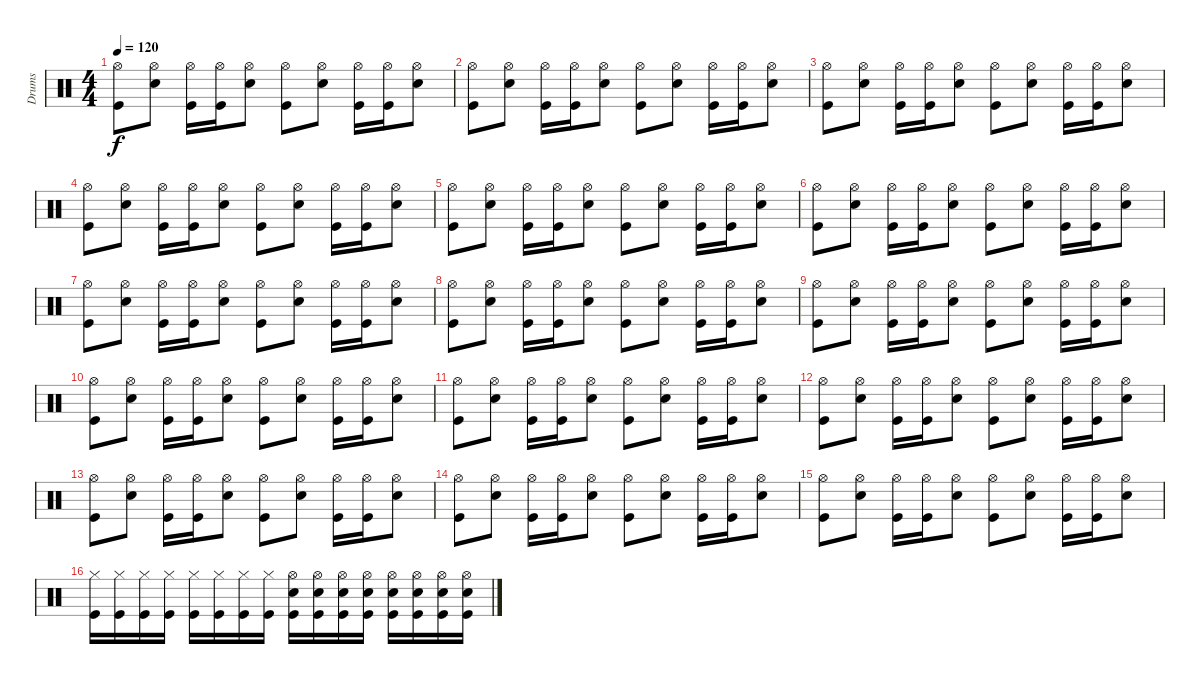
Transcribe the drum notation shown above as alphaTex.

\track ("Drums" "Drums") {instrument percussion}
\staff {score}
\articulation defaults
\ts (4 4)
\tempo 120
\clef neutral
\ks c
("Hi-Hat (open)" "Kick (hit)").8{dy f} ("Hi-Hat (open)" "Snare (hit) 2").8 ("Hi-Hat (open)" "Kick (hit)").16 ("Hi-Hat (open)" "Kick (hit)").16 ("Hi-Hat (open)" "Snare (hit) 2").8 ("Hi-Hat (open)" "Kick (hit)").8 ("Hi-Hat (open)" "Snare (hit) 2").8 ("Hi-Hat (open)" "Kick (hit)").16 ("Hi-Hat (open)" "Kick (hit)").16 ("Hi-Hat (open)" "Snare (hit) 2").8 |
("Hi-Hat (open)" "Kick (hit)").8 ("Hi-Hat (open)" "Snare (hit) 2").8 ("Hi-Hat (open)" "Kick (hit)").16 ("Hi-Hat (open)" "Kick (hit)").16 ("Hi-Hat (open)" "Snare (hit) 2").8 ("Hi-Hat (open)" "Kick (hit)").8 ("Hi-Hat (open)" "Snare (hit) 2").8 ("Hi-Hat (open)" "Kick (hit)").16 ("Hi-Hat (open)" "Kick (hit)").16 ("Hi-Hat (open)" "Snare (hit) 2").8 |
("Hi-Hat (open)" "Kick (hit)").8 ("Hi-Hat (open)" "Snare (hit) 2").8 ("Hi-Hat (open)" "Kick (hit)").16 ("Hi-Hat (open)" "Kick (hit)").16 ("Hi-Hat (open)" "Snare (hit) 2").8 ("Hi-Hat (open)" "Kick (hit)").8 ("Hi-Hat (open)" "Snare (hit) 2").8 ("Hi-Hat (open)" "Kick (hit)").16 ("Hi-Hat (open)" "Kick (hit)").16 ("Hi-Hat (open)" "Snare (hit) 2").8 |
("Hi-Hat (open)" "Kick (hit)").8 ("Hi-Hat (open)" "Snare (hit) 2").8 ("Hi-Hat (open)" "Kick (hit)").16 ("Hi-Hat (open)" "Kick (hit)").16 ("Hi-Hat (open)" "Snare (hit) 2").8 ("Hi-Hat (open)" "Kick (hit)").8 ("Hi-Hat (open)" "Snare (hit) 2").8 ("Hi-Hat (open)" "Kick (hit)").16 ("Hi-Hat (open)" "Kick (hit)").16 ("Hi-Hat (open)" "Snare (hit) 2").8 |
("Hi-Hat (open)" "Kick (hit)").8 ("Hi-Hat (open)" "Snare (hit) 2").8 ("Hi-Hat (open)" "Kick (hit)").16 ("Hi-Hat (open)" "Kick (hit)").16 ("Hi-Hat (open)" "Snare (hit) 2").8 ("Hi-Hat (open)" "Kick (hit)").8 ("Hi-Hat (open)" "Snare (hit) 2").8 ("Hi-Hat (open)" "Kick (hit)").16 ("Hi-Hat (open)" "Kick (hit)").16 ("Hi-Hat (open)" "Snare (hit) 2").8 |
("Hi-Hat (open)" "Kick (hit)").8 ("Hi-Hat (open)" "Snare (hit) 2").8 ("Hi-Hat (open)" "Kick (hit)").16 ("Hi-Hat (open)" "Kick (hit)").16 ("Hi-Hat (open)" "Snare (hit) 2").8 ("Hi-Hat (open)" "Kick (hit)").8 ("Hi-Hat (open)" "Snare (hit) 2").8 ("Hi-Hat (open)" "Kick (hit)").16 ("Hi-Hat (open)" "Kick (hit)").16 ("Hi-Hat (open)" "Snare (hit) 2").8 |
("Hi-Hat (open)" "Kick (hit)").8 ("Hi-Hat (open)" "Snare (hit) 2").8 ("Hi-Hat (open)" "Kick (hit)").16 ("Hi-Hat (open)" "Kick (hit)").16 ("Hi-Hat (open)" "Snare (hit) 2").8 ("Hi-Hat (open)" "Kick (hit)").8 ("Hi-Hat (open)" "Snare (hit) 2").8 ("Hi-Hat (open)" "Kick (hit)").16 ("Hi-Hat (open)" "Kick (hit)").16 ("Hi-Hat (open)" "Snare (hit) 2").8 |
("Hi-Hat (open)" "Kick (hit)").8 ("Hi-Hat (open)" "Snare (hit) 2").8 ("Hi-Hat (open)" "Kick (hit)").16 ("Hi-Hat (open)" "Kick (hit)").16 ("Hi-Hat (open)" "Snare (hit) 2").8 ("Hi-Hat (open)" "Kick (hit)").8 ("Hi-Hat (open)" "Snare (hit) 2").8 ("Hi-Hat (open)" "Kick (hit)").16 ("Hi-Hat (open)" "Kick (hit)").16 ("Hi-Hat (open)" "Snare (hit) 2").8 |
("Hi-Hat (open)" "Kick (hit)").8 ("Hi-Hat (open)" "Snare (hit) 2").8 ("Hi-Hat (open)" "Kick (hit)").16 ("Hi-Hat (open)" "Kick (hit)").16 ("Hi-Hat (open)" "Snare (hit) 2").8 ("Hi-Hat (open)" "Kick (hit)").8 ("Hi-Hat (open)" "Snare (hit) 2").8 ("Hi-Hat (open)" "Kick (hit)").16 ("Hi-Hat (open)" "Kick (hit)").16 ("Hi-Hat (open)" "Snare (hit) 2").8 |
("Hi-Hat (open)" "Kick (hit)").8 ("Hi-Hat (open)" "Snare (hit) 2").8 ("Hi-Hat (open)" "Kick (hit)").16 ("Hi-Hat (open)" "Kick (hit)").16 ("Hi-Hat (open)" "Snare (hit) 2").8 ("Hi-Hat (open)" "Kick (hit)").8 ("Hi-Hat (open)" "Snare (hit) 2").8 ("Hi-Hat (open)" "Kick (hit)").16 ("Hi-Hat (open)" "Kick (hit)").16 ("Hi-Hat (open)" "Snare (hit) 2").8 |
("Hi-Hat (open)" "Kick (hit)").8 ("Hi-Hat (open)" "Snare (hit) 2").8 ("Hi-Hat (open)" "Kick (hit)").16 ("Hi-Hat (open)" "Kick (hit)").16 ("Hi-Hat (open)" "Snare (hit) 2").8 ("Hi-Hat (open)" "Kick (hit)").8 ("Hi-Hat (open)" "Snare (hit) 2").8 ("Hi-Hat (open)" "Kick (hit)").16 ("Hi-Hat (open)" "Kick (hit)").16 ("Hi-Hat (open)" "Snare (hit) 2").8 |
("Hi-Hat (open)" "Kick (hit)").8 ("Hi-Hat (open)" "Snare (hit) 2").8 ("Hi-Hat (open)" "Kick (hit)").16 ("Hi-Hat (open)" "Kick (hit)").16 ("Hi-Hat (open)" "Snare (hit) 2").8 ("Hi-Hat (open)" "Kick (hit)").8 ("Hi-Hat (open)" "Snare (hit) 2").8 ("Hi-Hat (open)" "Kick (hit)").16 ("Hi-Hat (open)" "Kick (hit)").16 ("Hi-Hat (open)" "Snare (hit) 2").8 |
("Hi-Hat (open)" "Kick (hit)").8 ("Hi-Hat (open)" "Snare (hit) 2").8 ("Hi-Hat (open)" "Kick (hit)").16 ("Hi-Hat (open)" "Kick (hit)").16 ("Hi-Hat (open)" "Snare (hit) 2").8 ("Hi-Hat (open)" "Kick (hit)").8 ("Hi-Hat (open)" "Snare (hit) 2").8 ("Hi-Hat (open)" "Kick (hit)").16 ("Hi-Hat (open)" "Kick (hit)").16 ("Hi-Hat (open)" "Snare (hit) 2").8 |
("Hi-Hat (open)" "Kick (hit)").8 ("Hi-Hat (open)" "Snare (hit) 2").8 ("Hi-Hat (open)" "Kick (hit)").16 ("Hi-Hat (open)" "Kick (hit)").16 ("Hi-Hat (open)" "Snare (hit) 2").8 ("Hi-Hat (open)" "Kick (hit)").8 ("Hi-Hat (open)" "Snare (hit) 2").8 ("Hi-Hat (open)" "Kick (hit)").16 ("Hi-Hat (open)" "Kick (hit)").16 ("Hi-Hat (open)" "Snare (hit) 2").8 |
("Hi-Hat (open)" "Kick (hit)").8 ("Hi-Hat (open)" "Snare (hit) 2").8 ("Hi-Hat (open)" "Kick (hit)").16 ("Hi-Hat (open)" "Kick (hit)").16 ("Hi-Hat (open)" "Snare (hit) 2").8 ("Hi-Hat (open)" "Kick (hit)").8 ("Hi-Hat (open)" "Snare (hit) 2").8 ("Hi-Hat (open)" "Kick (hit)").16 ("Hi-Hat (open)" "Kick (hit)").16 ("Hi-Hat (open)" "Snare (hit) 2").8 |
("Hi-Hat (closed)" "Kick (hit)").16 ("Hi-Hat (closed)" "Kick (hit)").16 ("Hi-Hat (closed)" "Kick (hit)").16 ("Hi-Hat (closed)" "Kick (hit)").16 ("Hi-Hat (closed)" "Kick (hit)").16 ("Hi-Hat (closed)" "Kick (hit)").16 ("Hi-Hat (closed)" "Kick (hit)").16 ("Hi-Hat (closed)" "Kick (hit)").16 ("Snare (hit) 2" "Hi-Hat (open)" "Kick (hit)").16 ("Snare (hit) 2" "Hi-Hat (open)" "Kick (hit)").16 ("Snare (hit) 2" "Hi-Hat (open)" "Kick (hit)").16 ("Snare (hit) 2" "Hi-Hat (open)" "Kick (hit)").16 ("Snare (hit) 2" "Hi-Hat (open)" "Kick (hit)").16 ("Snare (hit) 2" "Hi-Hat (open)" "Kick (hit)").16 ("Snare (hit) 2" "Hi-Hat (open)" "Kick (hit)").16 ("Snare (hit) 2" "Hi-Hat (open)" "Kick (hit)").16
